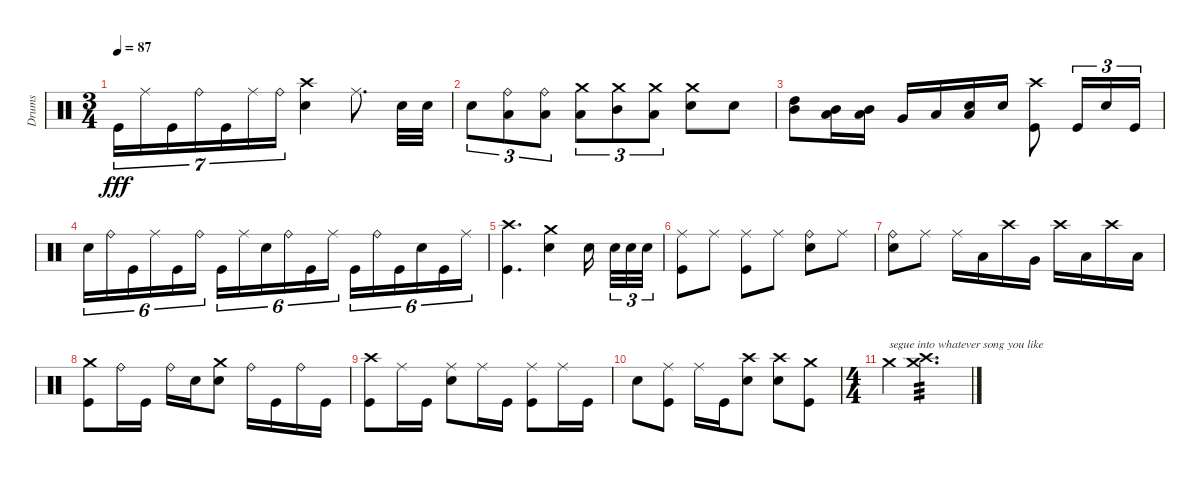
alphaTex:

\track ("Drums" "Drums") {instrument percussion}
\staff {score}
\articulation defaults
\ts (3 4)
\tempo 87
\clef neutral
\ks c "Kick (hit)".16{tu (7 4) dy fff} "Ride (middle)".16{tu (7 4)} "Kick (hit)".16{tu (7 4)} "Ride (bell)".16{tu (7 4)} "Kick (hit)".16{tu (7 4)} "Ride (middle)".16{tu (7 4)} "Ride (bell)".16{tu (7 4)}
("Crash high (hit)" "Snare (hit) 2").4 "Ride (middle)".8{d} "Snare (hit) 2".32 "Snare (hit) 2".32 |
"Snare (hit) 2".8{tu (3 2)} ("Ride (bell)" "Low Tom (hit)").8{tu (3 2)} ("Ride (bell)" "Low Floor Tom (hit)").8{tu (3 2)} ("Crash medium (hit)" "Low Tom (hit)").8{tu (3 2)} ("Crash medium (hit)" "Mid Tom (hit)").8{tu (3 2)} ("Crash medium (hit)" "Low Tom (hit)").8{tu (3 2)} ("Crash medium (hit)" "Snare (hit) 2").8 "Snare (hit) 2".8 |
("High Tom (hit)" "Mid Tom (hit)").8 ("Mid Tom (hit)" "Low Tom (hit)").16 ("Mid Tom (hit)" "Low Tom (hit)").16 "Very Low Tom (hit)".16 "Low Floor Tom (hit)".16 ("Low Floor Tom (hit)" "Snare (hit) 2").16 "Snare (hit) 2".16 ("Crash high (hit)" "Kick (hit)").8 "Kick (hit)".16{tu (3 2)} "Snare (hit) 2".16{tu (3 2)} "Kick (hit)".16{tu (3 2)} |
"Snare (hit) 2".16{tu (6 4)} "Ride (bell)".16{tu (6 4)} "Kick (hit)".16{tu (6 4)} "Ride (middle)".16{tu (6 4)} "Kick (hit)".16{tu (6 4)} "Ride (bell)".16{tu (6 4)} "Kick (hit)".16{tu (6 4)} "Ride (middle)".16{tu (6 4)} "Snare (hit) 2".16{tu (6 4)} "Ride (bell)".16{tu (6 4)} "Kick (hit)".16{tu (6 4)} "Ride (middle)".16{tu (6 4)} "Kick (hit)".16{tu (6 4)} "Ride (bell)".16{tu (6 4)} "Kick (hit)".16{tu (6 4)} "Snare (hit) 2".16{tu (6 4)} "Kick (hit)".16{tu (6 4)} "Ride (middle)".16{tu (6 4)} |
("Crash high (hit)" "Kick (hit)").4{d} ("Crash medium (hit)" "Snare (hit) 2").4 "Snare (hit) 2".16 "Snare (hit) 2".32{tu (3 2)} "Snare (hit) 2".32{tu (3 2)} "Snare (hit) 2".32{tu (3 2)} |
("Ride (middle)" "Kick (hit)").8 "Ride (middle)".8 ("Ride (middle)" "Kick (hit)").8 "Ride (middle)".8 ("Ride (bell)" "Snare (hit) 2").8 "Ride (middle)".8 |
("Ride (bell)" "Snare (hit) 2").8 "Ride (middle)".8 "Ride (middle)".16 "Low Tom (hit)".16 "Crash high (hit)".16 "Very Low Tom (hit)".16 "Crash high (hit)".16 "Low Floor Tom (hit)".16 "Crash high (hit)".16 "Low Floor Tom (hit)".16 |
("Crash medium (hit)" "Kick (hit)").8 "Ride (bell)".16 "Kick (hit)".16 "Ride (bell)".16 "Snare (hit) 2".16 ("Crash medium (hit)" "Snare (hit) 2").8 "Ride (bell)".16 "Kick (hit)".16 "Ride (bell)".16 "Kick (hit)".16 |
("Crash high (hit)" "Kick (hit)").8 "Ride (middle)".16 "Kick (hit)".16 ("Ride (middle)" "Snare (hit) 2").8 "Ride (middle)".16 "Kick (hit)".16 ("Ride (middle)" "Kick (hit)").8 "Ride (middle)".16 "Kick (hit)".16 |
"Snare (hit) 2".8 ("Ride (middle)" "Kick (hit)").8 "Ride (middle)".16 "Kick (hit)".16 ("Crash high (hit)" "Snare (hit) 2").8 ("Crash high (hit)" "Snare (hit) 2").8 ("Crash medium (hit)" "Kick (hit)").8 |
\ts (4 4)
"Crash medium (hit)".4{txt "segue into whatever song you like"} ("Crash medium (hit)" "Crash high (hit)").2{d tp 3}
